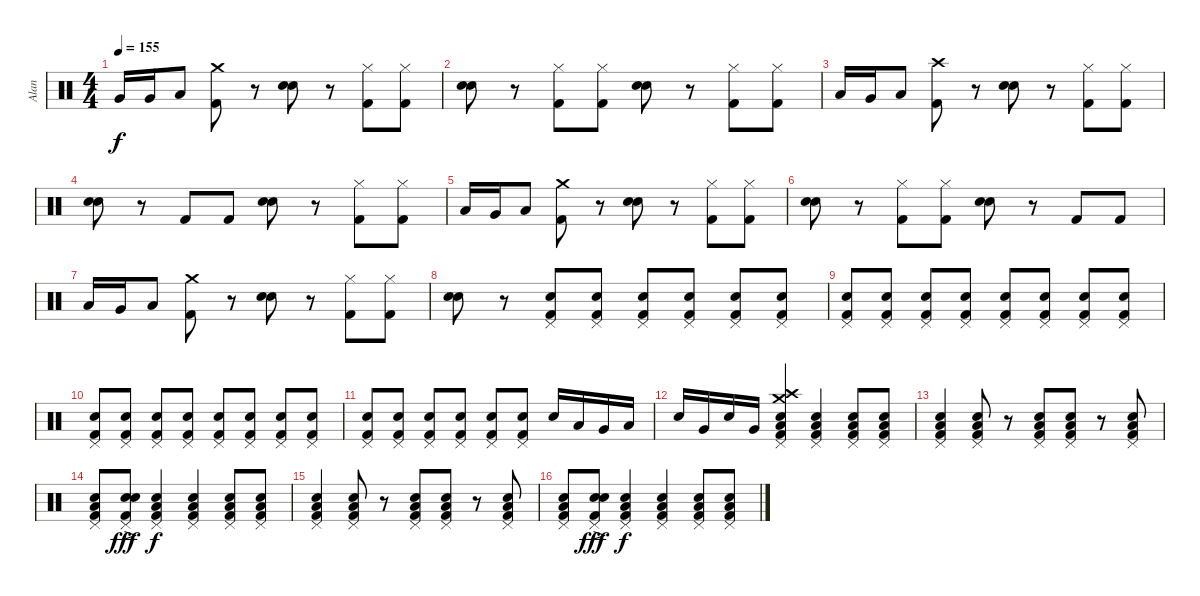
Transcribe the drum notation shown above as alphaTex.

\track ("Alan" "Alan") {instrument percussion}
\staff {score}
\articulation defaults
\ts (4 4)
\tempo 155
\clef neutral
\ks c "Very Low Tom (hit)".16{dy f} "Very Low Tom (hit)".16 "Low Floor Tom (hit)".8
("Crash medium (hit)" "Kick (hit) 2").8 r.8 ("Snare (hit) 2" "Snare (hit) 2").8 r.8 ("Hi-Hat (closed)" "Kick (hit) 2").8 ("Hi-Hat (closed)" "Kick (hit) 2").8 |
("Snare (hit) 2" "Snare (hit) 2").8 r.8 ("Hi-Hat (closed)" "Kick (hit) 2").8 ("Hi-Hat (closed)" "Kick (hit) 2").8 ("Snare (hit) 2" "Snare (hit) 2").8 r.8 ("Hi-Hat (closed)" "Kick (hit) 2").8 ("Hi-Hat (closed)" "Kick (hit) 2").8 |
"Low Tom (hit)".16 "Very Low Tom (hit)".16 "Low Floor Tom (hit)".8 ("Kick (hit) 2" "Crash high (hit)").8 r.8 ("Snare (hit) 2" "Snare (hit) 2").8 r.8 ("Hi-Hat (closed)" "Kick (hit) 2").8 ("Hi-Hat (closed)" "Kick (hit) 2").8 |
("Snare (hit) 2" "Snare (hit) 2").8 r.8 "Kick (hit) 2".8 "Kick (hit) 2".8 ("Snare (hit) 2" "Snare (hit) 2").8 r.8 ("Hi-Hat (closed)" "Kick (hit) 2").8 ("Hi-Hat (closed)" "Kick (hit) 2").8 |
"Low Tom (hit)".16 "Very Low Tom (hit)".16 "Low Floor Tom (hit)".8 ("Kick (hit) 2" "Crash medium (hit)").8 r.8 ("Snare (hit) 2" "Snare (hit) 2").8 r.8 ("Hi-Hat (closed)" "Kick (hit) 2").8 ("Hi-Hat (closed)" "Kick (hit) 2").8 |
("Snare (hit) 2" "Snare (hit) 2").8 r.8 ("Hi-Hat (closed)" "Kick (hit) 2").8 ("Hi-Hat (closed)" "Kick (hit) 2").8 ("Snare (hit) 2" "Snare (hit) 2").8 r.8 "Kick (hit) 2".8 "Kick (hit) 2".8 |
"Low Tom (hit)".16 "Very Low Tom (hit)".16 "Low Floor Tom (hit)".8 ("Kick (hit) 2" "Crash medium (hit)").8 r.8 ("Snare (hit) 2" "Snare (hit) 2").8 r.8 ("Hi-Hat (closed)" "Kick (hit) 2").8 ("Hi-Hat (closed)" "Kick (hit) 2").8 |
("Snare (hit) 2" "Snare (hit) 2").8 r.8 ("Snare (hit) 2" "Pedal Hi-Hat (hit)" "Kick (hit) 2").8{volume 4} ("Snare (hit) 2" "Pedal Hi-Hat (hit)" "Kick (hit) 2").8 ("Snare (hit) 2" "Pedal Hi-Hat (hit)" "Kick (hit) 2").8 ("Snare (hit) 2" "Pedal Hi-Hat (hit)" "Kick (hit) 2").8 ("Snare (hit) 2" "Pedal Hi-Hat (hit)" "Kick (hit) 2").8 ("Snare (hit) 2" "Pedal Hi-Hat (hit)" "Kick (hit) 2").8 |
("Snare (hit) 2" "Pedal Hi-Hat (hit)" "Kick (hit) 2").8{volume 6} ("Snare (hit) 2" "Pedal Hi-Hat (hit)" "Kick (hit) 2").8 ("Snare (hit) 2" "Pedal Hi-Hat (hit)" "Kick (hit) 2").8 ("Snare (hit) 2" "Pedal Hi-Hat (hit)" "Kick (hit) 2").8 ("Snare (hit) 2" "Pedal Hi-Hat (hit)" "Kick (hit) 2").8 ("Snare (hit) 2" "Pedal Hi-Hat (hit)" "Kick (hit) 2").8 ("Snare (hit) 2" "Pedal Hi-Hat (hit)" "Kick (hit) 2").8 ("Snare (hit) 2" "Pedal Hi-Hat (hit)" "Kick (hit) 2").8 |
("Snare (hit) 2" "Pedal Hi-Hat (hit)" "Kick (hit) 2").8{volume 8} ("Snare (hit) 2" "Pedal Hi-Hat (hit)" "Kick (hit) 2").8 ("Snare (hit) 2" "Pedal Hi-Hat (hit)" "Kick (hit) 2").8 ("Snare (hit) 2" "Pedal Hi-Hat (hit)" "Kick (hit) 2").8 ("Snare (hit) 2" "Pedal Hi-Hat (hit)" "Kick (hit) 2").8 ("Snare (hit) 2" "Pedal Hi-Hat (hit)" "Kick (hit) 2").8 ("Snare (hit) 2" "Pedal Hi-Hat (hit)" "Kick (hit) 2").8 ("Snare (hit) 2" "Pedal Hi-Hat (hit)" "Kick (hit) 2").8 |
("Snare (hit) 2" "Pedal Hi-Hat (hit)" "Kick (hit) 2").8{volume 11} ("Snare (hit) 2" "Pedal Hi-Hat (hit)" "Kick (hit) 2").8 ("Snare (hit) 2" "Pedal Hi-Hat (hit)" "Kick (hit) 2").8 ("Snare (hit) 2" "Pedal Hi-Hat (hit)" "Kick (hit) 2").8 ("Snare (hit) 2" "Pedal Hi-Hat (hit)" "Kick (hit) 2").8 ("Snare (hit) 2" "Pedal Hi-Hat (hit)" "Kick (hit) 2").8 "Snare (hit) 2".16 "Low Tom (hit)".16 "Very Low Tom (hit)".16 "Low Floor Tom (hit)".16 |
"Snare (hit) 2".16 "Very Low Tom (hit)".16 "Snare (hit) 2".16 "Very Low Tom (hit)".16 ("Kick (hit) 2" "Snare (hit) 2" "Low Floor Tom (hit)" "Pedal Hi-Hat (hit)" "Crash medium (hit)" "Crash high (hit)").4 ("Kick (hit) 2" "Low Floor Tom (hit)" "Snare (hit) 2" "Pedal Hi-Hat (hit)").4 ("Kick (hit) 2" "Low Floor Tom (hit)" "Snare (hit) 2" "Pedal Hi-Hat (hit)").8 ("Kick (hit) 2" "Low Floor Tom (hit)" "Snare (hit) 2" "Pedal Hi-Hat (hit)").8 |
("Kick (hit) 2" "Low Floor Tom (hit)" "Snare (hit) 2" "Pedal Hi-Hat (hit)").4 ("Kick (hit) 2" "Low Floor Tom (hit)" "Snare (hit) 2" "Pedal Hi-Hat (hit)").8 r.8 ("Kick (hit) 2" "Low Floor Tom (hit)" "Snare (hit) 2" "Pedal Hi-Hat (hit)").8 ("Kick (hit) 2" "Low Floor Tom (hit)" "Snare (hit) 2" "Pedal Hi-Hat (hit)").8 r.8 ("Kick (hit) 2" "Low Floor Tom (hit)" "Snare (hit) 2" "Pedal Hi-Hat (hit)").8 |
("Kick (hit) 2" "Low Floor Tom (hit)" "Snare (hit) 2" "Pedal Hi-Hat (hit)").8 ("Kick (hit) 2"{ac} "Snare (hit) 2" "Snare (hit) 2" "Pedal Hi-Hat (hit)").8{dy fff volume 16} ("Kick (hit) 2" "Low Floor Tom (hit)" "Snare (hit) 2" "Pedal Hi-Hat (hit)").4{dy f volume 11} ("Kick (hit) 2" "Low Floor Tom (hit)" "Snare (hit) 2" "Pedal Hi-Hat (hit)").4 ("Kick (hit) 2" "Low Floor Tom (hit)" "Snare (hit) 2" "Pedal Hi-Hat (hit)").8 ("Kick (hit) 2" "Low Floor Tom (hit)" "Snare (hit) 2" "Pedal Hi-Hat (hit)").8 |
("Kick (hit) 2" "Low Floor Tom (hit)" "Snare (hit) 2" "Pedal Hi-Hat (hit)").4 ("Kick (hit) 2" "Low Floor Tom (hit)" "Snare (hit) 2" "Pedal Hi-Hat (hit)").8 r.8 ("Kick (hit) 2" "Low Floor Tom (hit)" "Snare (hit) 2" "Pedal Hi-Hat (hit)").8 ("Kick (hit) 2" "Low Floor Tom (hit)" "Snare (hit) 2" "Pedal Hi-Hat (hit)").8 r.8 ("Kick (hit) 2" "Low Floor Tom (hit)" "Snare (hit) 2" "Pedal Hi-Hat (hit)").8 |
("Kick (hit) 2" "Low Floor Tom (hit)" "Snare (hit) 2" "Pedal Hi-Hat (hit)").8 ("Kick (hit) 2"{ac} "Snare (hit) 2" "Snare (hit) 2" "Pedal Hi-Hat (hit)").8{dy fff volume 16} ("Kick (hit) 2" "Low Floor Tom (hit)" "Snare (hit) 2" "Pedal Hi-Hat (hit)").4{dy f volume 11} ("Kick (hit) 2" "Low Floor Tom (hit)" "Snare (hit) 2" "Pedal Hi-Hat (hit)").4 ("Kick (hit) 2" "Low Floor Tom (hit)" "Snare (hit) 2" "Pedal Hi-Hat (hit)").8 ("Kick (hit) 2" "Low Floor Tom (hit)" "Snare (hit) 2" "Pedal Hi-Hat (hit)").8
